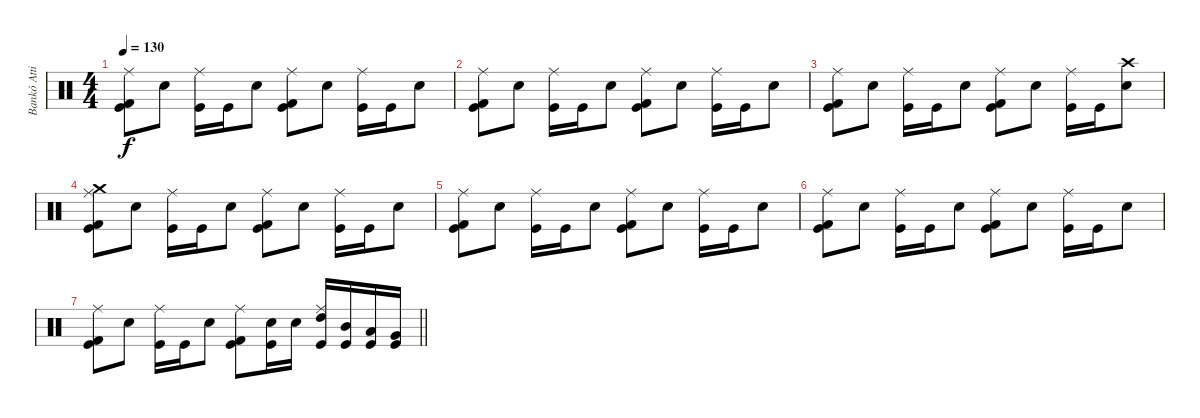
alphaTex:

\track ("Bankó Attila-Drum" "Bankó Atti") {instrument percussion}
\staff {score}
\articulation defaults
\ts (4 4)
\tempo 130
\clef neutral
\ks c
("Kick (hit) 2" "Kick (hit)" "Ride (middle)").8{dy f} "Snare (hit) 2".8 ("Kick (hit)" "Ride (middle)").16 "Kick (hit)".16 "Snare (hit) 2".8 ("Kick (hit) 2" "Kick (hit)" "Ride (middle)").8 "Snare (hit) 2".8 ("Kick (hit)" "Ride (middle)").16 "Kick (hit)".16 "Snare (hit) 2".8 |
("Kick (hit) 2" "Kick (hit)" "Ride (middle)").8 "Snare (hit) 2".8 ("Kick (hit)" "Ride (middle)").16 "Kick (hit)".16 "Snare (hit) 2".8 ("Kick (hit) 2" "Kick (hit)" "Ride (middle)").8 "Snare (hit) 2".8 ("Kick (hit)" "Ride (middle)").16 "Kick (hit)".16 "Snare (hit) 2".8 |
("Kick (hit) 2" "Kick (hit)" "Ride (middle)").8 "Snare (hit) 2".8 ("Kick (hit)" "Ride (middle)").16 "Kick (hit)".16 "Snare (hit) 2".8 ("Kick (hit) 2" "Kick (hit)" "Ride (middle)").8 "Snare (hit) 2".8 ("Kick (hit)" "Ride (middle)").16 "Kick (hit)".16 ("Snare (hit) 2" "Crash high (hit)").8 |
("Kick (hit) 2" "Kick (hit)" "Crash medium (hit)" "Ride (middle)").8 "Snare (hit) 2".8 ("Kick (hit)" "Ride (middle)").16 "Kick (hit)".16 "Snare (hit) 2".8 ("Kick (hit) 2" "Kick (hit)" "Ride (middle)").8 "Snare (hit) 2".8 ("Kick (hit)" "Ride (middle)").16 "Kick (hit)".16 "Snare (hit) 2".8 |
("Kick (hit) 2" "Kick (hit)" "Ride (middle)").8 "Snare (hit) 2".8 ("Kick (hit)" "Ride (middle)").16 "Kick (hit)".16 "Snare (hit) 2".8 ("Kick (hit) 2" "Kick (hit)" "Ride (middle)").8 "Snare (hit) 2".8 ("Kick (hit)" "Ride (middle)").16 "Kick (hit)".16 "Snare (hit) 2".8 |
("Kick (hit) 2" "Kick (hit)" "Ride (middle)").8 "Snare (hit) 2".8 ("Kick (hit)" "Ride (middle)").16 "Kick (hit)".16 "Snare (hit) 2".8 ("Kick (hit) 2" "Kick (hit)" "Ride (middle)").8 "Snare (hit) 2".8 ("Kick (hit)" "Ride (middle)").16 "Kick (hit)".16 "Snare (hit) 2".8 |
\barLineRight lightlight
("Kick (hit) 2" "Kick (hit)" "Ride (middle)").8 "Snare (hit) 2".8 ("Kick (hit)" "Ride (middle)").16 "Kick (hit)".16 "Snare (hit) 2".8 ("Kick (hit) 2" "Kick (hit)" "Ride (middle)").8 ("Snare (hit) 2" "Kick (hit)").16 "Snare (hit) 2".16 ("High Tom (hit)" "Kick (hit)" "Ride (middle)").16 ("Mid Tom (hit)" "Kick (hit)").16 ("Low Tom (hit)" "Kick (hit)").16 ("Very Low Tom (hit)" "Kick (hit)").16
